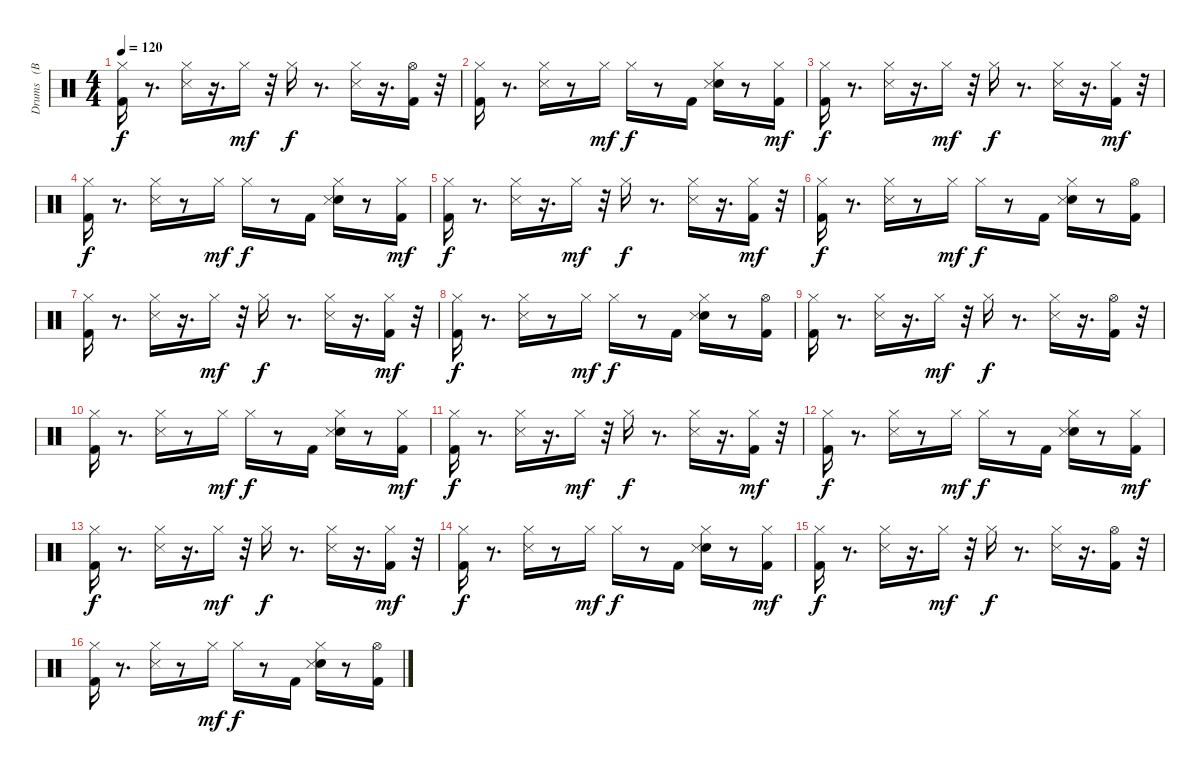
\track ("Drums   (BB)" "Drums   (B") {instrument percussion}
\staff {score}
\articulation defaults
\ts (4 4)
\tempo 120
\clef neutral
\ks c
("Kick (hit) 2" "Hi-Hat (closed)").16{dy f} r.8{d} ("Hi-Hat (closed)" "Snare (side stick) 3").16 r.16{d} "Hi-Hat (closed)".16{dy mf} r.32 "Hi-Hat (closed)".16{dy f} r.8{d} ("Hi-Hat (closed)" "Snare (side stick) 3").16 r.16{d} ("Kick (hit) 2" "Hi-Hat (open)").16 r.32 |
("Kick (hit) 2" "Hi-Hat (closed)").16 r.8{d} ("Hi-Hat (closed)" "Snare (side stick) 3").16 r.8 "Hi-Hat (closed)".16{dy mf} "Hi-Hat (closed)".16{dy f} r.8 "Kick (hit) 2".16 ("Snare (hit) 2" "Hi-Hat (closed)" "Snare (side stick) 3").16 r.8 ("Kick (hit) 2" "Hi-Hat (closed)").16{dy mf} |
("Kick (hit) 2" "Hi-Hat (closed)").16{dy f} r.8{d} ("Hi-Hat (closed)" "Snare (side stick) 3").16 r.16{d} "Hi-Hat (closed)".16{dy mf} r.32 "Hi-Hat (closed)".16{dy f} r.8{d} ("Hi-Hat (closed)" "Snare (side stick) 3").16 r.16{d} ("Kick (hit) 2" "Hi-Hat (closed)").16{dy mf} r.32 |
("Kick (hit) 2" "Hi-Hat (closed)").16{dy f} r.8{d} ("Hi-Hat (closed)" "Snare (side stick) 3").16 r.8 "Hi-Hat (closed)".16{dy mf} "Hi-Hat (closed)".16{dy f} r.8 "Kick (hit) 2".16 ("Snare (hit) 2" "Hi-Hat (closed)" "Snare (side stick) 3").16 r.8 ("Kick (hit) 2" "Hi-Hat (closed)").16{dy mf} |
("Kick (hit) 2" "Hi-Hat (closed)").16{dy f} r.8{d} ("Hi-Hat (closed)" "Snare (side stick) 3").16 r.16{d} "Hi-Hat (closed)".16{dy mf} r.32 "Hi-Hat (closed)".16{dy f} r.8{d} ("Hi-Hat (closed)" "Snare (side stick) 3").16 r.16{d} ("Kick (hit) 2" "Hi-Hat (closed)").16{dy mf} r.32 |
("Kick (hit) 2" "Hi-Hat (closed)").16{dy f} r.8{d} ("Hi-Hat (closed)" "Snare (side stick) 3").16 r.8 "Hi-Hat (closed)".16{dy mf} "Hi-Hat (closed)".16{dy f} r.8 "Kick (hit) 2".16 ("Snare (hit) 2" "Hi-Hat (closed)" "Snare (side stick) 3").16 r.8 ("Kick (hit) 2" "Hi-Hat (open)").16 |
("Kick (hit) 2" "Hi-Hat (closed)").16 r.8{d} ("Hi-Hat (closed)" "Snare (side stick) 3").16 r.16{d} "Hi-Hat (closed)".16{dy mf} r.32 "Hi-Hat (closed)".16{dy f} r.8{d} ("Hi-Hat (closed)" "Snare (side stick) 3").16 r.16{d} ("Kick (hit) 2" "Hi-Hat (closed)").16{dy mf} r.32 |
("Kick (hit) 2" "Hi-Hat (closed)").16{dy f} r.8{d} ("Hi-Hat (closed)" "Snare (side stick) 3").16 r.8 "Hi-Hat (closed)".16{dy mf} "Hi-Hat (closed)".16{dy f} r.8 "Kick (hit) 2".16 ("Snare (hit) 2" "Hi-Hat (closed)" "Snare (side stick) 3").16 r.8 ("Kick (hit) 2" "Hi-Hat (open)").16 |
("Kick (hit) 2" "Hi-Hat (closed)").16 r.8{d} ("Hi-Hat (closed)" "Snare (side stick) 3").16 r.16{d} "Hi-Hat (closed)".16{dy mf} r.32 "Hi-Hat (closed)".16{dy f} r.8{d} ("Hi-Hat (closed)" "Snare (side stick) 3").16 r.16{d} ("Kick (hit) 2" "Hi-Hat (open)").16 r.32 |
("Kick (hit) 2" "Hi-Hat (closed)").16 r.8{d} ("Hi-Hat (closed)" "Snare (side stick) 3").16 r.8 "Hi-Hat (closed)".16{dy mf} "Hi-Hat (closed)".16{dy f} r.8 "Kick (hit) 2".16 ("Snare (hit) 2" "Hi-Hat (closed)" "Snare (side stick) 3").16 r.8 ("Kick (hit) 2" "Hi-Hat (closed)").16{dy mf} |
("Kick (hit) 2" "Hi-Hat (closed)").16{dy f} r.8{d} ("Hi-Hat (closed)" "Snare (side stick) 3").16 r.16{d} "Hi-Hat (closed)".16{dy mf} r.32 "Hi-Hat (closed)".16{dy f} r.8{d} ("Hi-Hat (closed)" "Snare (side stick) 3").16 r.16{d} ("Kick (hit) 2" "Hi-Hat (closed)").16{dy mf} r.32 |
("Kick (hit) 2" "Hi-Hat (closed)").16{dy f} r.8{d} ("Hi-Hat (closed)" "Snare (side stick) 3").16 r.8 "Hi-Hat (closed)".16{dy mf} "Hi-Hat (closed)".16{dy f} r.8 "Kick (hit) 2".16 ("Snare (hit) 2" "Hi-Hat (closed)" "Snare (side stick) 3").16 r.8 ("Kick (hit) 2" "Hi-Hat (closed)").16{dy mf} |
("Kick (hit) 2" "Hi-Hat (closed)").16{dy f} r.8{d} ("Hi-Hat (closed)" "Snare (side stick) 3").16 r.16{d} "Hi-Hat (closed)".16{dy mf} r.32 "Hi-Hat (closed)".16{dy f} r.8{d} ("Hi-Hat (closed)" "Snare (side stick) 3").16 r.16{d} ("Kick (hit) 2" "Hi-Hat (closed)").16{dy mf} r.32 |
("Kick (hit) 2" "Hi-Hat (closed)").16{dy f} r.8{d} ("Hi-Hat (closed)" "Snare (side stick) 3").16 r.8 "Hi-Hat (closed)".16{dy mf} "Hi-Hat (closed)".16{dy f} r.8 "Kick (hit) 2".16 ("Snare (hit) 2" "Hi-Hat (closed)" "Snare (side stick) 3").16 r.8 ("Kick (hit) 2" "Hi-Hat (closed)").16{dy mf} |
("Kick (hit) 2" "Hi-Hat (closed)").16{dy f} r.8{d} ("Hi-Hat (closed)" "Snare (side stick) 3").16 r.16{d} "Hi-Hat (closed)".16{dy mf} r.32 "Hi-Hat (closed)".16{dy f} r.8{d} ("Hi-Hat (closed)" "Snare (side stick) 3").16 r.16{d} ("Kick (hit) 2" "Hi-Hat (open)").16 r.32 |
("Kick (hit) 2" "Hi-Hat (closed)").16 r.8{d} ("Hi-Hat (closed)" "Snare (side stick) 3").16 r.8 "Hi-Hat (closed)".16{dy mf} "Hi-Hat (closed)".16{dy f} r.8 "Kick (hit) 2".16 ("Snare (hit) 2" "Hi-Hat (closed)" "Snare (side stick) 3").16 r.8 ("Kick (hit) 2" "Hi-Hat (open)").16
